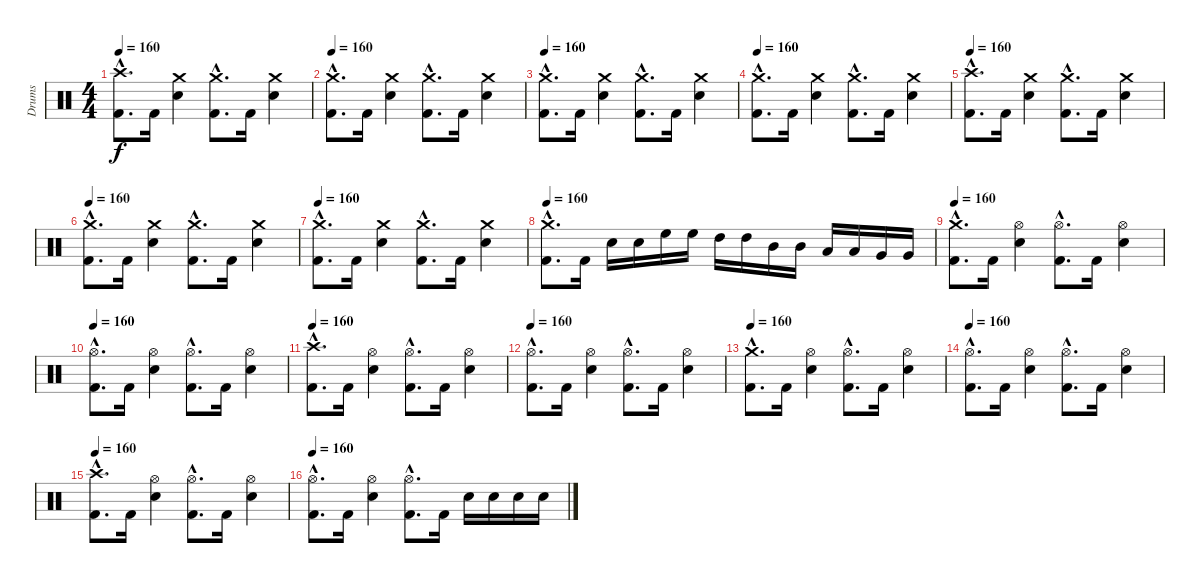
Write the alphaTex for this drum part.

\track ("Drums" "Drums") {instrument percussion}
\staff {score}
\articulation defaults
\ts (4 4)
\tempo 160
\clef neutral
\ks c
("Crash high (hit)"{hac} "Kick (hit) 2"{hac}).8{d dy f} "Kick (hit) 2".16 ("Crash medium (hit)" "Snare (hit) 2").4 ("Crash medium (hit)"{hac} "Kick (hit) 2"{hac}).8{d} "Kick (hit) 2".16 ("Crash medium (hit)" "Snare (hit) 2").4 |
\tempo 160
("Crash medium (hit)"{hac} "Kick (hit) 2"{hac}).8{d} "Kick (hit) 2".16 ("Crash medium (hit)" "Snare (hit) 2").4 ("Crash medium (hit)"{hac} "Kick (hit) 2"{hac}).8{d} "Kick (hit) 2".16 ("Crash medium (hit)" "Snare (hit) 2").4 |
\tempo 160
("Crash medium (hit)"{hac} "Kick (hit) 2"{hac}).8{d} "Kick (hit) 2".16 ("Crash medium (hit)" "Snare (hit) 2").4 ("Crash medium (hit)"{hac} "Kick (hit) 2"{hac}).8{d} "Kick (hit) 2".16 ("Crash medium (hit)" "Snare (hit) 2").4 |
\tempo 160
("Crash medium (hit)"{hac} "Kick (hit) 2"{hac}).8{d} "Kick (hit) 2".16 ("Crash medium (hit)" "Snare (hit) 2").4 ("Crash medium (hit)"{hac} "Kick (hit) 2"{hac}).8{d} "Kick (hit) 2".16 ("Crash medium (hit)" "Snare (hit) 2").4 |
\tempo 160
("Crash high (hit)"{hac} "Kick (hit) 2"{hac}).8{d} "Kick (hit) 2".16 ("Crash medium (hit)" "Snare (hit) 2").4 ("Crash medium (hit)"{hac} "Kick (hit) 2"{hac}).8{d} "Kick (hit) 2".16 ("Crash medium (hit)" "Snare (hit) 2").4 |
\tempo 160
("Crash medium (hit)"{hac} "Kick (hit) 2"{hac}).8{d} "Kick (hit) 2".16 ("Crash medium (hit)" "Snare (hit) 2").4 ("Crash medium (hit)"{hac} "Kick (hit) 2"{hac}).8{d} "Kick (hit) 2".16 ("Crash medium (hit)" "Snare (hit) 2").4 |
\tempo 160
("Crash medium (hit)"{hac} "Kick (hit) 2"{hac}).8{d} "Kick (hit) 2".16 ("Crash medium (hit)" "Snare (hit) 2").4 ("Crash medium (hit)"{hac} "Kick (hit) 2"{hac}).8{d} "Kick (hit) 2".16 ("Crash medium (hit)" "Snare (hit) 2").4 |
\tempo 160
("Crash medium (hit)"{hac} "Kick (hit) 2"{hac}).8{d} "Kick (hit) 2".16 "Snare (hit) 2".16 "Snare (hit) 2".16 "High Floor Tom (hit)".16 "High Floor Tom (hit)".16 "High Tom (hit)".16 "High Tom (hit)".16 "Mid Tom (hit)".16 "Mid Tom (hit)".16 "Low Tom (hit)".16 "Low Tom (hit)".16 "Very Low Tom (hit)".16 "Very Low Tom (hit)".16 |
\tempo 160
("Crash medium (hit)"{hac} "Kick (hit) 2"{hac}).8{d} "Kick (hit) 2".16 ("Hi-Hat (open)" "Snare (hit) 2").4 ("Hi-Hat (open)"{hac} "Kick (hit) 2"{hac}).8{d} "Kick (hit) 2".16 ("Hi-Hat (open)" "Snare (hit) 2").4 |
\tempo 160
("Hi-Hat (open)"{hac} "Kick (hit) 2"{hac}).8{d} "Kick (hit) 2".16 ("Hi-Hat (open)" "Snare (hit) 2").4 ("Hi-Hat (open)"{hac} "Kick (hit) 2"{hac}).8{d} "Kick (hit) 2".16 ("Hi-Hat (open)" "Snare (hit) 2").4 |
\tempo 160
("Crash high (hit)"{hac} "Kick (hit) 2"{hac}).8{d} "Kick (hit) 2".16 ("Hi-Hat (open)" "Snare (hit) 2").4 ("Hi-Hat (open)"{hac} "Kick (hit) 2"{hac}).8{d} "Kick (hit) 2".16 ("Hi-Hat (open)" "Snare (hit) 2").4 |
\tempo 160
("Hi-Hat (open)"{hac} "Kick (hit) 2"{hac}).8{d} "Kick (hit) 2".16 ("Hi-Hat (open)" "Snare (hit) 2").4 ("Hi-Hat (open)"{hac} "Kick (hit) 2"{hac}).8{d} "Kick (hit) 2".16 ("Hi-Hat (open)" "Snare (hit) 2").4 |
\tempo 160
("Crash medium (hit)"{hac} "Kick (hit) 2"{hac}).8{d} "Kick (hit) 2".16 ("Hi-Hat (open)" "Snare (hit) 2").4 ("Hi-Hat (open)"{hac} "Kick (hit) 2"{hac}).8{d} "Kick (hit) 2".16 ("Hi-Hat (open)" "Snare (hit) 2").4 |
\tempo 160
("Hi-Hat (open)"{hac} "Kick (hit) 2"{hac}).8{d} "Kick (hit) 2".16 ("Hi-Hat (open)" "Snare (hit) 2").4 ("Hi-Hat (open)"{hac} "Kick (hit) 2"{hac}).8{d} "Kick (hit) 2".16 ("Hi-Hat (open)" "Snare (hit) 2").4 |
\tempo 160
("Crash high (hit)"{hac} "Kick (hit) 2"{hac}).8{d} "Kick (hit) 2".16 ("Hi-Hat (open)" "Snare (hit) 2").4 ("Hi-Hat (open)"{hac} "Kick (hit) 2"{hac}).8{d} "Kick (hit) 2".16 ("Hi-Hat (open)" "Snare (hit) 2").4 |
\tempo 160
("Hi-Hat (open)"{hac} "Kick (hit) 2"{hac}).8{d} "Kick (hit) 2".16 ("Hi-Hat (open)" "Snare (hit) 2").4 ("Hi-Hat (open)"{hac} "Kick (hit) 2"{hac}).8{d} "Kick (hit) 2".16 "Snare (hit) 2".16 "Snare (hit) 2".16 "Snare (hit) 2".16 "Snare (hit) 2".16
